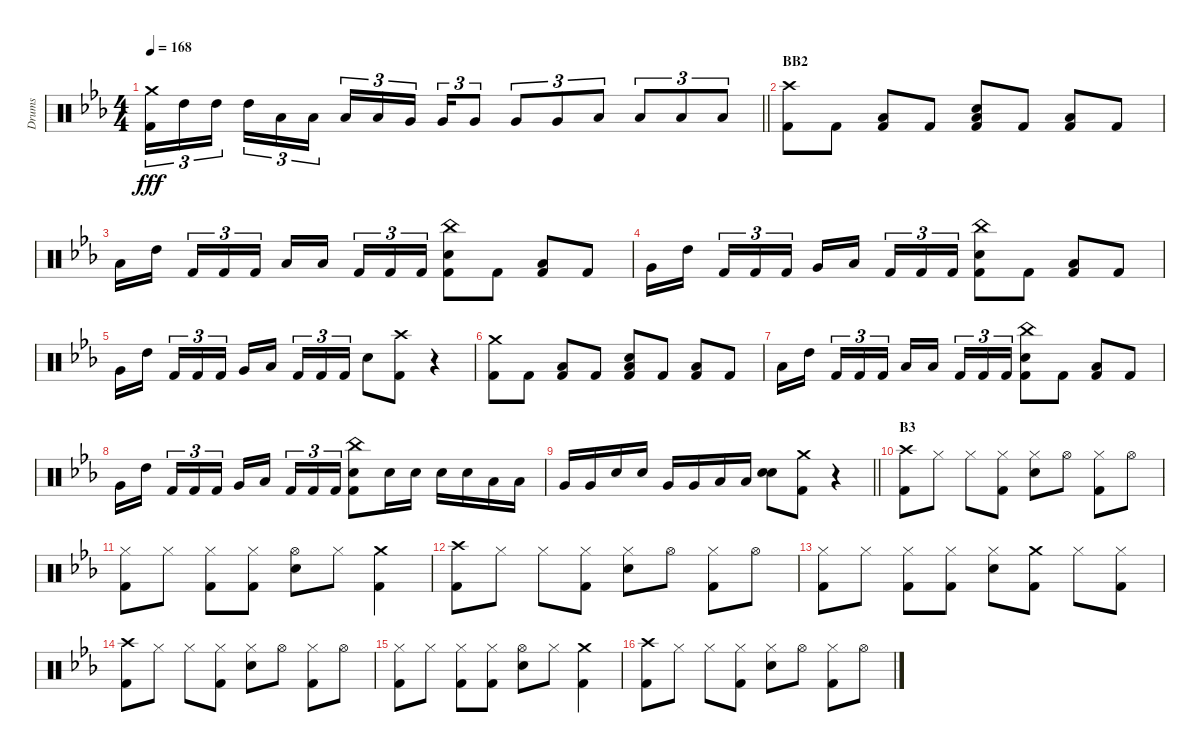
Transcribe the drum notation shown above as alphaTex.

\track ("Drums" "Drums") {instrument percussion}
\staff {score}
\articulation defaults
\ts (4 4)
\tempo 168
\clef neutral
\barLineRight lightlight
\ks cminor
("Crash medium (hit)" "Kick (hit) 2").16{tu (3 2) dy fff} "High Tom (hit)".16{tu (3 2)} "High Tom (hit)".16{tu (3 2) beam splitsecondary} "High Tom (hit)".16{tu (3 2)} "Low Tom (hit)".16{tu (3 2)} "Low Tom (hit)".16{tu (3 2)} "Low Tom (hit)".16{tu (3 2)} "Low Tom (hit)".16{tu (3 2)} "Very Low Tom (hit)".16{tu (3 2) beam splitsecondary} "Very Low Tom (hit)".16{tu (3 2)} "Very Low Tom (hit)".8{tu (3 2)} "Very Low Tom (hit)".8{tu (3 2)} "Very Low Tom (hit)".8{tu (3 2)} "Low Floor Tom (hit)".8{tu (3 2)} "Low Floor Tom (hit)".8{tu (3 2)} "Low Floor Tom (hit)".8{tu (3 2)} "Low Floor Tom (hit)".8{tu (3 2)} |
\section ("" "BB2")
("Crash high (hit)" "Kick (hit) 2").8 "Kick (hit) 2".8 ("Kick (hit) 2" "Low Floor Tom (hit)").8 "Kick (hit) 2".8 ("Snare (hit) 2" "Kick (hit) 2" "Low Tom (hit)").8 "Kick (hit) 2".8 ("Kick (hit) 2" "Low Floor Tom (hit)").8 "Kick (hit) 2".8 |
"Low Tom (hit)".16 "High Tom (hit)".16{beam splitsecondary} "Kick (hit) 2".16{tu (3 2)} "Kick (hit) 2".16{tu (3 2)} "Kick (hit) 2".16{tu (3 2)} "Low Floor Tom (hit)".16 "Low Tom (hit)".16{beam splitsecondary} "Kick (hit) 2".16{tu (3 2)} "Kick (hit) 2".16{tu (3 2)} "Kick (hit) 2".16{tu (3 2)} ("China (hit)" "Snare (hit) 2" "Kick (hit) 2").8 "Kick (hit) 2".8 ("Kick (hit) 2" "Low Floor Tom (hit)").8 "Kick (hit) 2".8 |
"Very Low Tom (hit)".16 "High Tom (hit)".16{beam splitsecondary} "Kick (hit) 2".16{tu (3 2)} "Kick (hit) 2".16{tu (3 2)} "Kick (hit) 2".16{tu (3 2)} "Very Low Tom (hit)".16 "Low Tom (hit)".16{beam splitsecondary} "Kick (hit) 2".16{tu (3 2)} "Kick (hit) 2".16{tu (3 2)} "Kick (hit) 2".16{tu (3 2)} ("China (hit)" "Snare (hit) 2" "Kick (hit) 2").8 "Kick (hit) 2".8 ("Kick (hit) 2" "Low Floor Tom (hit)").8 "Kick (hit) 2".8 |
"Very Low Tom (hit)".16 "High Tom (hit)".16{beam splitsecondary} "Kick (hit) 2".16{tu (3 2)} "Kick (hit) 2".16{tu (3 2)} "Kick (hit) 2".16{tu (3 2)} "Very Low Tom (hit)".16 "Low Tom (hit)".16{beam splitsecondary} "Kick (hit) 2".16{tu (3 2)} "Kick (hit) 2".16{tu (3 2)} "Kick (hit) 2".16{tu (3 2)} "Snare (hit) 2".8 ("Crash high (hit)" "Kick (hit) 2").8 r.4 |
("Crash medium (hit)" "Kick (hit) 2").8 "Kick (hit) 2".8 ("Kick (hit) 2" "Low Floor Tom (hit)").8 "Kick (hit) 2".8 ("Snare (hit) 2" "Kick (hit) 2" "Low Tom (hit)").8 "Kick (hit) 2".8 ("Kick (hit) 2" "Low Floor Tom (hit)").8 "Kick (hit) 2".8 |
"Low Tom (hit)".16 "High Tom (hit)".16{beam splitsecondary} "Kick (hit) 2".16{tu (3 2)} "Kick (hit) 2".16{tu (3 2)} "Kick (hit) 2".16{tu (3 2)} "Low Floor Tom (hit)".16 "Low Tom (hit)".16{beam splitsecondary} "Kick (hit) 2".16{tu (3 2)} "Kick (hit) 2".16{tu (3 2)} "Kick (hit) 2".16{tu (3 2)} ("China (hit)" "Snare (hit) 2" "Kick (hit) 2").8 "Kick (hit) 2".8 ("Kick (hit) 2" "Low Floor Tom (hit)").8 "Kick (hit) 2".8 |
"Very Low Tom (hit)".16 "High Tom (hit)".16{beam splitsecondary} "Kick (hit) 2".16{tu (3 2)} "Kick (hit) 2".16{tu (3 2)} "Kick (hit) 2".16{tu (3 2)} "Very Low Tom (hit)".16 "Low Tom (hit)".16{beam splitsecondary} "Kick (hit) 2".16{tu (3 2)} "Kick (hit) 2".16{tu (3 2)} "Kick (hit) 2".16{tu (3 2)} ("China (hit)" "Snare (hit) 2" "Kick (hit) 2").8 "Snare (hit) 2".16 "Snare (hit) 2".16 "Snare (hit) 2".16 "Snare (hit) 2".16 "Low Tom (hit)".16 "Low Tom (hit)".16 |
\barLineRight lightlight "Very Low Tom (hit)".16 "Very Low Tom (hit)".16 "Snare (hit) 2".16 "Snare (hit) 2".16 "Very Low Tom (hit)".16 "Very Low Tom (hit)".16 "Low Floor Tom (hit)".16 "Low Floor Tom (hit)".16
("Snare (hit) 2" "Snare (hit) 2").8 ("Crash medium (hit)" "Kick (hit) 2").8 r.4 |
\section ("" "B3")
("Crash high (hit)" "Kick (hit) 2").8 "Hi-Hat (closed)".8 "Hi-Hat (closed)".8 ("Hi-Hat (closed)" "Kick (hit) 2").8 ("Hi-Hat (closed)" "Snare (hit) 2").8 "Hi-Hat (open)".8 ("Hi-Hat (closed)" "Kick (hit) 2").8 "Hi-Hat (open)".8 |
("Hi-Hat (closed)" "Kick (hit) 2").8 "Hi-Hat (closed)".8 ("Hi-Hat (closed)" "Kick (hit) 2").8 ("Hi-Hat (closed)" "Kick (hit) 2").8 ("Hi-Hat (open)" "Snare (hit) 2").8 "Hi-Hat (closed)".8 ("Crash medium (hit)" "Kick (hit) 2").4 |
("Crash high (hit)" "Kick (hit) 2").8 "Hi-Hat (closed)".8 "Hi-Hat (closed)".8 ("Hi-Hat (closed)" "Kick (hit) 2").8 ("Hi-Hat (closed)" "Snare (hit) 2").8 "Hi-Hat (open)".8 ("Hi-Hat (closed)" "Kick (hit) 2").8 "Hi-Hat (open)".8 |
("Hi-Hat (closed)" "Kick (hit) 2").8 "Hi-Hat (closed)".8 ("Hi-Hat (closed)" "Kick (hit) 2").8 ("Hi-Hat (closed)" "Kick (hit) 2").8 ("Hi-Hat (closed)" "Snare (hit) 2").8 ("Crash medium (hit)" "Kick (hit) 2").8 "Hi-Hat (closed)".8 ("Hi-Hat (closed)" "Kick (hit) 2").8 |
("Crash high (hit)" "Kick (hit) 2").8 "Hi-Hat (closed)".8 "Hi-Hat (closed)".8 ("Hi-Hat (closed)" "Kick (hit) 2").8 ("Hi-Hat (closed)" "Snare (hit) 2").8 "Hi-Hat (open)".8 ("Hi-Hat (closed)" "Kick (hit) 2").8 "Hi-Hat (open)".8 |
("Hi-Hat (closed)" "Kick (hit) 2").8 "Hi-Hat (closed)".8 ("Hi-Hat (closed)" "Kick (hit) 2").8 ("Hi-Hat (closed)" "Kick (hit) 2").8 ("Hi-Hat (open)" "Snare (hit) 2").8 "Hi-Hat (closed)".8 ("Crash medium (hit)" "Kick (hit) 2").4 |
("Crash high (hit)" "Kick (hit) 2").8 "Hi-Hat (closed)".8 "Hi-Hat (closed)".8 ("Hi-Hat (closed)" "Kick (hit) 2").8 ("Hi-Hat (closed)" "Snare (hit) 2").8 "Hi-Hat (open)".8 ("Hi-Hat (closed)" "Kick (hit) 2").8 "Hi-Hat (open)".8
